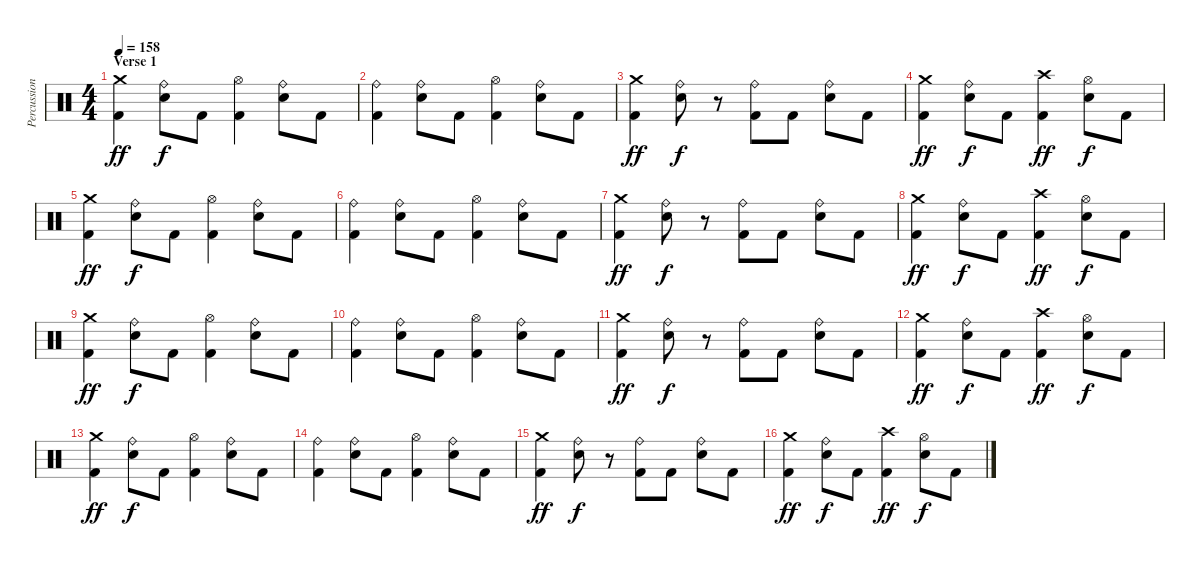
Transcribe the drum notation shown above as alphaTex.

\track ("Percussion" "Percussion") {instrument percussion}
\staff {score}
\articulation defaults
\ts (4 4)
\section ("" "Verse 1")
\tempo 158
\clef neutral
\ks c
("Kick (hit) 2" "Crash medium (hit)").4{dy ff} ("Electric Snare (hit)" "Ride (bell)").8{dy f} "Kick (hit) 2".8 ("Kick (hit) 2" "Hi-Hat (open)").4 ("Electric Snare (hit)" "Ride (bell)").8 "Kick (hit) 2".8 |
("Kick (hit) 2" "Ride (bell)").4 ("Electric Snare (hit)" "Ride (bell)").8 "Kick (hit) 2".8 ("Kick (hit) 2" "Hi-Hat (open)").4 ("Electric Snare (hit)" "Ride (bell)").8 "Kick (hit) 2".8 |
("Kick (hit) 2" "Crash medium (hit)").4{dy ff} ("Electric Snare (hit)" "Ride (bell)").8{dy f} r.8 ("Kick (hit) 2" "Ride (bell)").8 "Kick (hit) 2".8 ("Electric Snare (hit)" "Ride (bell)").8 "Kick (hit) 2".8 |
("Kick (hit) 2" "Crash medium (hit)").4{dy ff} ("Electric Snare (hit)" "Ride (bell)").8{dy f} "Kick (hit) 2".8 ("Kick (hit) 2" "Crash high (hit)").4{dy ff} ("Electric Snare (hit)" "Hi-Hat (open)").8{dy f} "Kick (hit) 2".8 |
("Kick (hit) 2" "Crash medium (hit)").4{dy ff} ("Electric Snare (hit)" "Ride (bell)").8{dy f} "Kick (hit) 2".8 ("Kick (hit) 2" "Hi-Hat (open)").4 ("Electric Snare (hit)" "Ride (bell)").8 "Kick (hit) 2".8 |
("Kick (hit) 2" "Ride (bell)").4 ("Electric Snare (hit)" "Ride (bell)").8 "Kick (hit) 2".8 ("Kick (hit) 2" "Hi-Hat (open)").4 ("Electric Snare (hit)" "Ride (bell)").8 "Kick (hit) 2".8 |
("Kick (hit) 2" "Crash medium (hit)").4{dy ff} ("Electric Snare (hit)" "Ride (bell)").8{dy f} r.8 ("Kick (hit) 2" "Ride (bell)").8 "Kick (hit) 2".8 ("Electric Snare (hit)" "Ride (bell)").8 "Kick (hit) 2".8 |
("Kick (hit) 2" "Crash medium (hit)").4{dy ff} ("Electric Snare (hit)" "Ride (bell)").8{dy f} "Kick (hit) 2".8 ("Kick (hit) 2" "Crash high (hit)").4{dy ff} ("Electric Snare (hit)" "Hi-Hat (open)").8{dy f} "Kick (hit) 2".8 |
("Kick (hit) 2" "Crash medium (hit)").4{dy ff} ("Electric Snare (hit)" "Ride (bell)").8{dy f} "Kick (hit) 2".8 ("Kick (hit) 2" "Hi-Hat (open)").4 ("Electric Snare (hit)" "Ride (bell)").8 "Kick (hit) 2".8 |
("Kick (hit) 2" "Ride (bell)").4 ("Electric Snare (hit)" "Ride (bell)").8 "Kick (hit) 2".8 ("Kick (hit) 2" "Hi-Hat (open)").4 ("Electric Snare (hit)" "Ride (bell)").8 "Kick (hit) 2".8 |
("Kick (hit) 2" "Crash medium (hit)").4{dy ff} ("Electric Snare (hit)" "Ride (bell)").8{dy f} r.8 ("Kick (hit) 2" "Ride (bell)").8 "Kick (hit) 2".8 ("Electric Snare (hit)" "Ride (bell)").8 "Kick (hit) 2".8 |
("Kick (hit) 2" "Crash medium (hit)").4{dy ff} ("Electric Snare (hit)" "Ride (bell)").8{dy f} "Kick (hit) 2".8 ("Kick (hit) 2" "Crash high (hit)").4{dy ff} ("Electric Snare (hit)" "Hi-Hat (open)").8{dy f} "Kick (hit) 2".8 |
("Kick (hit) 2" "Crash medium (hit)").4{dy ff} ("Electric Snare (hit)" "Ride (bell)").8{dy f} "Kick (hit) 2".8 ("Kick (hit) 2" "Hi-Hat (open)").4 ("Electric Snare (hit)" "Ride (bell)").8 "Kick (hit) 2".8 |
("Kick (hit) 2" "Ride (bell)").4 ("Electric Snare (hit)" "Ride (bell)").8 "Kick (hit) 2".8 ("Kick (hit) 2" "Hi-Hat (open)").4 ("Electric Snare (hit)" "Ride (bell)").8 "Kick (hit) 2".8 |
("Kick (hit) 2" "Crash medium (hit)").4{dy ff} ("Electric Snare (hit)" "Ride (bell)").8{dy f} r.8 ("Kick (hit) 2" "Ride (bell)").8 "Kick (hit) 2".8 ("Electric Snare (hit)" "Ride (bell)").8 "Kick (hit) 2".8 |
("Kick (hit) 2" "Crash medium (hit)").4{dy ff} ("Electric Snare (hit)" "Ride (bell)").8{dy f} "Kick (hit) 2".8 ("Kick (hit) 2" "Crash high (hit)").4{dy ff} ("Electric Snare (hit)" "Hi-Hat (open)").8{dy f} "Kick (hit) 2".8
